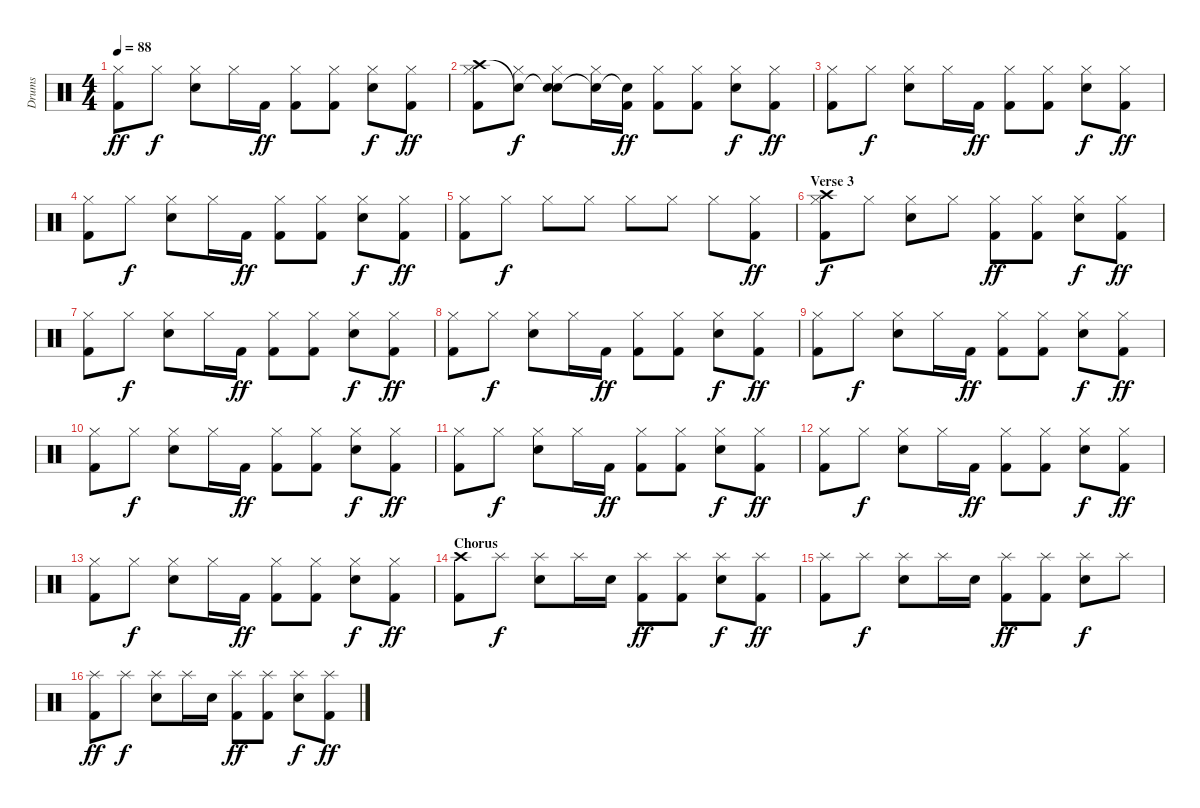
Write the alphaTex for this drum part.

\track ("Drums" "Drums") {instrument percussion}
\staff {score}
\articulation defaults
\ts (4 4)
\tempo 88
\clef neutral
\ks c
("Hi-Hat (closed)" "Kick (hit) 2").8{dy ff} "Hi-Hat (closed)".8{dy f} ("Hi-Hat (closed)" "Electric Snare (hit)").8 "Hi-Hat (closed)".16 "Kick (hit) 2".16{dy ff} ("Hi-Hat (closed)" "Kick (hit) 2").8 ("Hi-Hat (closed)" "Kick (hit) 2").8 ("Hi-Hat (closed)" "Electric Snare (hit)").8{dy f} ("Hi-Hat (closed)" "Kick (hit) 2").8{dy ff} |
("Crash high (hit)" "Hi-Hat (closed)" "Kick (hit) 2").8 ("Snare (hit)"{t} "Hi-Hat (closed)").8{dy f} ("Snare (hit)"{t} "Hi-Hat (closed)" "Electric Snare (hit)").8 ("Snare (hit)"{t} "Hi-Hat (closed)").16 ("Snare (hit)"{t} "Kick (hit) 2").16{dy ff} ("Hi-Hat (closed)" "Kick (hit) 2").8 ("Hi-Hat (closed)" "Kick (hit) 2").8 ("Hi-Hat (closed)" "Electric Snare (hit)").8{dy f} ("Hi-Hat (closed)" "Kick (hit) 2").8{dy ff} |
("Hi-Hat (closed)" "Kick (hit) 2").8 "Hi-Hat (closed)".8{dy f} ("Hi-Hat (closed)" "Electric Snare (hit)").8 "Hi-Hat (closed)".16 "Kick (hit) 2".16{dy ff} ("Hi-Hat (closed)" "Kick (hit) 2").8 ("Hi-Hat (closed)" "Kick (hit) 2").8 ("Hi-Hat (closed)" "Electric Snare (hit)").8{dy f} ("Hi-Hat (closed)" "Kick (hit) 2").8{dy ff} |
("Hi-Hat (closed)" "Kick (hit) 2").8 "Hi-Hat (closed)".8{dy f} ("Hi-Hat (closed)" "Electric Snare (hit)").8 "Hi-Hat (closed)".16 "Kick (hit) 2".16{dy ff} ("Hi-Hat (closed)" "Kick (hit) 2").8 ("Hi-Hat (closed)" "Kick (hit) 2").8 ("Hi-Hat (closed)" "Electric Snare (hit)").8{dy f} ("Hi-Hat (closed)" "Kick (hit) 2").8{dy ff} |
("Hi-Hat (closed)" "Kick (hit) 2").8 "Hi-Hat (closed)".8{dy f} "Hi-Hat (closed)".8 "Hi-Hat (closed)".8 "Hi-Hat (closed)".8 "Hi-Hat (closed)".8 "Hi-Hat (closed)".8 ("Hi-Hat (closed)" "Kick (hit) 2").8{dy ff} |
\section ("" "Verse 3")
("Crash high (hit)" "Hi-Hat (closed)" "Kick (hit) 2").8{dy f} "Hi-Hat (closed)".8 ("Hi-Hat (closed)" "Electric Snare (hit)").8 "Hi-Hat (closed)".8 ("Hi-Hat (closed)" "Kick (hit) 2").8{dy ff} ("Hi-Hat (closed)" "Kick (hit) 2").8 ("Hi-Hat (closed)" "Electric Snare (hit)").8{dy f} ("Hi-Hat (closed)" "Kick (hit) 2").8{dy ff} |
("Hi-Hat (closed)" "Kick (hit) 2").8 "Hi-Hat (closed)".8{dy f} ("Hi-Hat (closed)" "Electric Snare (hit)").8 "Hi-Hat (closed)".16 "Kick (hit) 2".16{dy ff} ("Hi-Hat (closed)" "Kick (hit) 2").8 ("Hi-Hat (closed)" "Kick (hit) 2").8 ("Hi-Hat (closed)" "Electric Snare (hit)").8{dy f} ("Hi-Hat (closed)" "Kick (hit) 2").8{dy ff} |
("Hi-Hat (closed)" "Kick (hit) 2").8 "Hi-Hat (closed)".8{dy f} ("Hi-Hat (closed)" "Electric Snare (hit)").8 "Hi-Hat (closed)".16 "Kick (hit) 2".16{dy ff} ("Hi-Hat (closed)" "Kick (hit) 2").8 ("Hi-Hat (closed)" "Kick (hit) 2").8 ("Hi-Hat (closed)" "Electric Snare (hit)").8{dy f} ("Hi-Hat (closed)" "Kick (hit) 2").8{dy ff} |
("Hi-Hat (closed)" "Kick (hit) 2").8 "Hi-Hat (closed)".8{dy f} ("Hi-Hat (closed)" "Electric Snare (hit)").8 "Hi-Hat (closed)".16 "Kick (hit) 2".16{dy ff} ("Hi-Hat (closed)" "Kick (hit) 2").8 ("Hi-Hat (closed)" "Kick (hit) 2").8 ("Hi-Hat (closed)" "Electric Snare (hit)").8{dy f} ("Hi-Hat (closed)" "Kick (hit) 2").8{dy ff} |
("Hi-Hat (closed)" "Kick (hit) 2").8 "Hi-Hat (closed)".8{dy f} ("Hi-Hat (closed)" "Electric Snare (hit)").8 "Hi-Hat (closed)".16 "Kick (hit) 2".16{dy ff} ("Hi-Hat (closed)" "Kick (hit) 2").8 ("Hi-Hat (closed)" "Kick (hit) 2").8 ("Hi-Hat (closed)" "Electric Snare (hit)").8{dy f} ("Hi-Hat (closed)" "Kick (hit) 2").8{dy ff} |
("Hi-Hat (closed)" "Kick (hit) 2").8 "Hi-Hat (closed)".8{dy f} ("Hi-Hat (closed)" "Electric Snare (hit)").8 "Hi-Hat (closed)".16 "Kick (hit) 2".16{dy ff} ("Hi-Hat (closed)" "Kick (hit) 2").8 ("Hi-Hat (closed)" "Kick (hit) 2").8 ("Hi-Hat (closed)" "Electric Snare (hit)").8{dy f} ("Hi-Hat (closed)" "Kick (hit) 2").8{dy ff} |
("Hi-Hat (closed)" "Kick (hit) 2").8 "Hi-Hat (closed)".8{dy f} ("Hi-Hat (closed)" "Electric Snare (hit)").8 "Hi-Hat (closed)".16 "Kick (hit) 2".16{dy ff} ("Hi-Hat (closed)" "Kick (hit) 2").8 ("Hi-Hat (closed)" "Kick (hit) 2").8 ("Hi-Hat (closed)" "Electric Snare (hit)").8{dy f} ("Hi-Hat (closed)" "Kick (hit) 2").8{dy ff} |
("Hi-Hat (closed)" "Kick (hit) 2").8 "Hi-Hat (closed)".8{dy f} ("Hi-Hat (closed)" "Electric Snare (hit)").8 "Hi-Hat (closed)".16 "Kick (hit) 2".16{dy ff} ("Hi-Hat (closed)" "Kick (hit) 2").8 ("Hi-Hat (closed)" "Kick (hit) 2").8 ("Hi-Hat (closed)" "Electric Snare (hit)").8{dy f} ("Hi-Hat (closed)" "Kick (hit) 2").8{dy ff} |
\section ("" "Chorus")
("Crash high (hit)" "Kick (hit) 2").8 "Splash (hit)".8{dy f} ("Splash (hit)" "Electric Snare (hit)").8 "Splash (hit)".16 "Electric Snare (hit)".16 ("Splash (hit)" "Kick (hit) 2").8{dy ff} ("Splash (hit)" "Kick (hit) 2").8 ("Splash (hit)" "Electric Snare (hit)").8{dy f} ("Splash (hit)" "Kick (hit) 2").8{dy ff} |
("Splash (hit)" "Kick (hit) 2").8 "Splash (hit)".8{dy f} ("Splash (hit)" "Electric Snare (hit)").8 "Splash (hit)".16 "Electric Snare (hit)".16 ("Splash (hit)" "Kick (hit) 2").8{dy ff} ("Splash (hit)" "Kick (hit) 2").8 ("Splash (hit)" "Electric Snare (hit)").8{dy f} "Splash (hit)".8 |
("Splash (hit)" "Kick (hit) 2").8{dy ff} "Splash (hit)".8{dy f} ("Splash (hit)" "Electric Snare (hit)").8 "Splash (hit)".16 "Electric Snare (hit)".16 ("Splash (hit)" "Kick (hit) 2").8{dy ff} ("Splash (hit)" "Kick (hit) 2").8 ("Splash (hit)" "Electric Snare (hit)").8{dy f} ("Splash (hit)" "Kick (hit) 2").8{dy ff}
